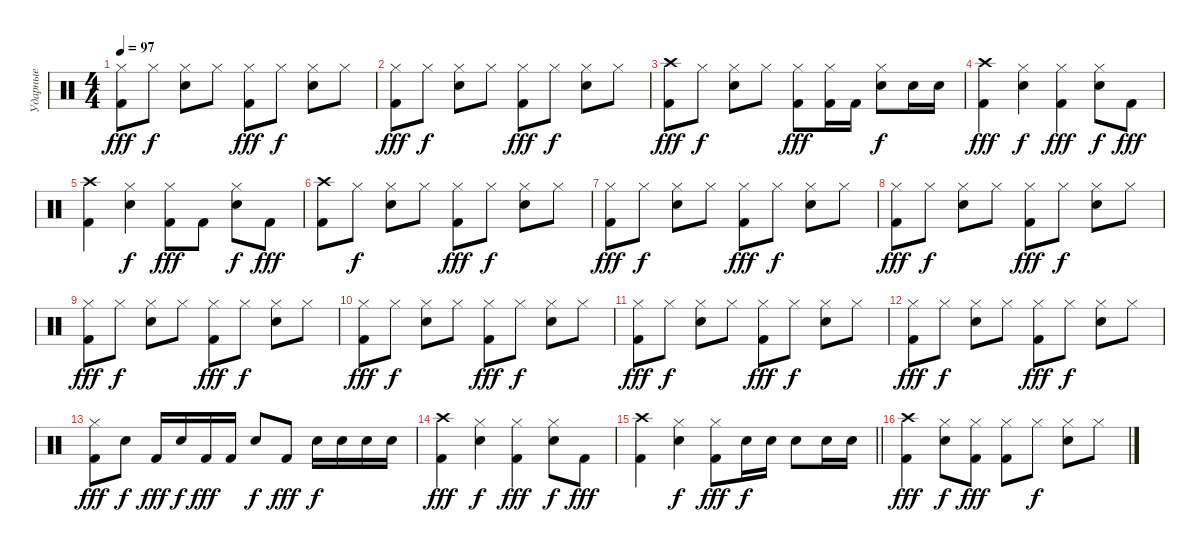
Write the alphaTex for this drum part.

\track ("Ударные" "Ударные") {instrument percussion}
\staff {score}
\articulation defaults
\ts (4 4)
\tempo 97
\clef neutral
\ks c
("Kick (hit) 2" "Hi-Hat (closed)").8{dy fff} "Hi-Hat (closed)".8{dy f} ("Snare (hit) 2" "Hi-Hat (closed)").8 "Hi-Hat (closed)".8 ("Kick (hit) 2" "Hi-Hat (closed)").8{dy fff} "Hi-Hat (closed)".8{dy f} ("Snare (hit) 2" "Hi-Hat (closed)").8 "Hi-Hat (closed)".8 |
("Kick (hit) 2" "Hi-Hat (closed)").8{dy fff} "Hi-Hat (closed)".8{dy f} ("Snare (hit) 2" "Hi-Hat (closed)").8 "Hi-Hat (closed)".8 ("Kick (hit) 2" "Hi-Hat (closed)").8{dy fff} "Hi-Hat (closed)".8{dy f} ("Snare (hit) 2" "Hi-Hat (closed)").8 "Hi-Hat (closed)".8 |
("Kick (hit) 2" "Crash high (hit)").8{dy fff} "Hi-Hat (closed)".8{dy f} ("Snare (hit) 2" "Hi-Hat (closed)").8 "Hi-Hat (closed)".8 ("Kick (hit) 2" "Hi-Hat (closed)").8{dy fff} ("Kick (hit) 2" "Hi-Hat (closed)").16 "Kick (hit) 2".16 ("Snare (hit) 2" "Hi-Hat (closed)").8{dy f} "Snare (hit) 2".16 "Snare (hit) 2".16 |
("Kick (hit) 2" "Crash high (hit)").4{dy fff} ("Snare (hit) 2" "Hi-Hat (closed)").4{dy f} ("Kick (hit) 2" "Hi-Hat (closed)").4{dy fff} ("Snare (hit) 2" "Hi-Hat (closed)").8{dy f} "Kick (hit) 2".8{dy fff} |
("Kick (hit) 2" "Crash high (hit)").4 ("Snare (hit) 2" "Hi-Hat (closed)").4{dy f} ("Kick (hit) 2" "Hi-Hat (closed)").8{dy fff} "Kick (hit) 2".8 ("Snare (hit) 2" "Hi-Hat (closed)").8{dy f} "Kick (hit) 2".8{dy fff} |
("Kick (hit) 2" "Crash high (hit)").8 "Hi-Hat (closed)".8{dy f} ("Snare (hit) 2" "Hi-Hat (closed)").8 "Hi-Hat (closed)".8 ("Kick (hit) 2" "Hi-Hat (closed)").8{dy fff} "Hi-Hat (closed)".8{dy f} ("Snare (hit) 2" "Hi-Hat (closed)").8 "Hi-Hat (closed)".8 |
("Kick (hit) 2" "Hi-Hat (closed)").8{dy fff} "Hi-Hat (closed)".8{dy f} ("Snare (hit) 2" "Hi-Hat (closed)").8 "Hi-Hat (closed)".8 ("Kick (hit) 2" "Hi-Hat (closed)").8{dy fff} "Hi-Hat (closed)".8{dy f} ("Snare (hit) 2" "Hi-Hat (closed)").8 "Hi-Hat (closed)".8 |
("Kick (hit) 2" "Hi-Hat (closed)").8{dy fff} "Hi-Hat (closed)".8{dy f} ("Snare (hit) 2" "Hi-Hat (closed)").8 "Hi-Hat (closed)".8 ("Kick (hit) 2" "Hi-Hat (closed)").8{dy fff} "Hi-Hat (closed)".8{dy f} ("Snare (hit) 2" "Hi-Hat (closed)").8 "Hi-Hat (closed)".8 |
("Kick (hit) 2" "Hi-Hat (closed)").8{dy fff} "Hi-Hat (closed)".8{dy f} ("Snare (hit) 2" "Hi-Hat (closed)").8 "Hi-Hat (closed)".8 ("Kick (hit) 2" "Hi-Hat (closed)").8{dy fff} "Hi-Hat (closed)".8{dy f} ("Snare (hit) 2" "Hi-Hat (closed)").8 "Hi-Hat (closed)".8 |
("Kick (hit) 2" "Hi-Hat (closed)").8{dy fff} "Hi-Hat (closed)".8{dy f} ("Snare (hit) 2" "Hi-Hat (closed)").8 "Hi-Hat (closed)".8 ("Kick (hit) 2" "Hi-Hat (closed)").8{dy fff} "Hi-Hat (closed)".8{dy f} ("Snare (hit) 2" "Hi-Hat (closed)").8 "Hi-Hat (closed)".8 |
("Kick (hit) 2" "Hi-Hat (closed)").8{dy fff} "Hi-Hat (closed)".8{dy f} ("Snare (hit) 2" "Hi-Hat (closed)").8 "Hi-Hat (closed)".8 ("Kick (hit) 2" "Hi-Hat (closed)").8{dy fff} "Hi-Hat (closed)".8{dy f} ("Snare (hit) 2" "Hi-Hat (closed)").8 "Hi-Hat (closed)".8 |
("Kick (hit) 2" "Hi-Hat (closed)").8{dy fff} "Hi-Hat (closed)".8{dy f} ("Snare (hit) 2" "Hi-Hat (closed)").8 "Hi-Hat (closed)".8 ("Kick (hit) 2" "Hi-Hat (closed)").8{dy fff} "Hi-Hat (closed)".8{dy f} ("Snare (hit) 2" "Hi-Hat (closed)").8 "Hi-Hat (closed)".8 |
("Kick (hit) 2" "Hi-Hat (closed)").8{dy fff} "Snare (hit) 2".8{dy f} "Kick (hit) 2".16{dy fff} "Snare (hit) 2".16{dy f} "Kick (hit) 2".16{dy fff} "Kick (hit) 2".16 "Snare (hit) 2".8{dy f} "Kick (hit) 2".8{dy fff} "Electric Snare (hit)".16{dy f} "Electric Snare (hit)".16 "Electric Snare (hit)".16 "Electric Snare (hit)".16 |
("Kick (hit) 2" "Crash high (hit)").4{dy fff} ("Snare (hit) 2" "Hi-Hat (closed)").4{dy f} ("Kick (hit) 2" "Hi-Hat (closed)").4{dy fff} ("Snare (hit) 2" "Hi-Hat (closed)").8{dy f} "Kick (hit) 2".8{dy fff} |
\barLineRight lightlight
("Kick (hit) 2" "Crash high (hit)").4 ("Snare (hit) 2" "Hi-Hat (closed)").4{dy f} ("Kick (hit) 2" "Hi-Hat (closed)").8{dy fff} "Snare (hit) 2".16{dy f} "Snare (hit) 2".16 "Snare (hit) 2".8 "Snare (hit) 2".16 "Snare (hit) 2".16 |
("Kick (hit) 2" "Crash high (hit)").4{dy fff} ("Snare (hit) 2" "Hi-Hat (closed)").8{dy f} ("Kick (hit) 2" "Hi-Hat (closed)").8{dy fff} ("Kick (hit) 2" "Hi-Hat (closed)").8 "Hi-Hat (closed)".8{dy f} ("Snare (hit) 2" "Hi-Hat (closed)").8 "Hi-Hat (closed)".8
